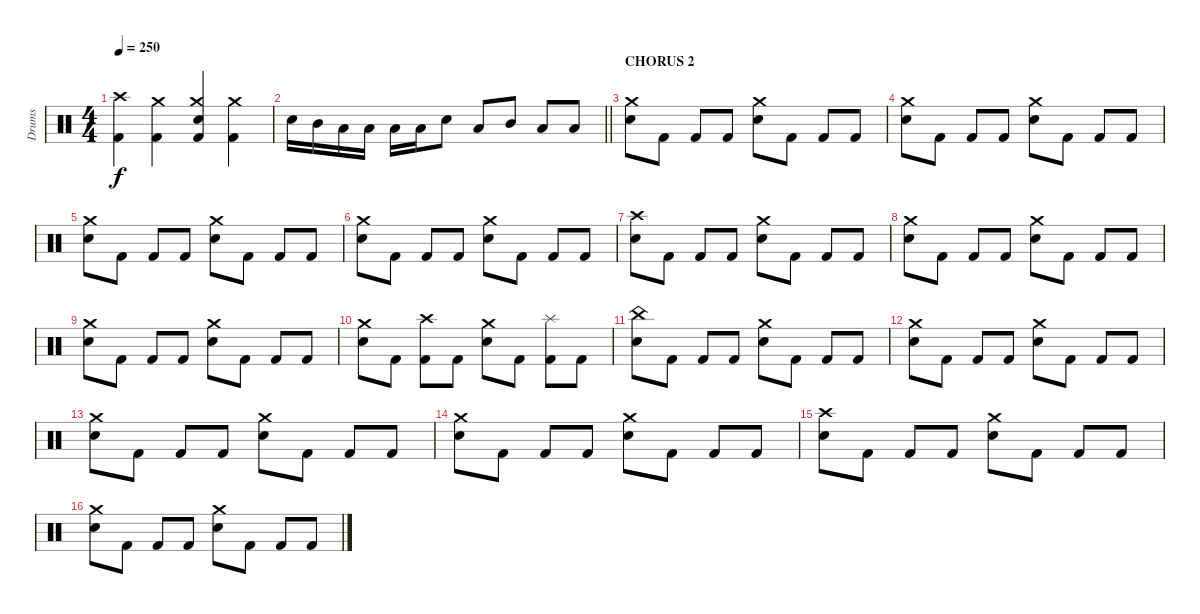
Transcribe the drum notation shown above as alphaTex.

\track ("Drums" "Drums") {instrument percussion}
\staff {score}
\articulation defaults
\ts (4 4)
\tempo 250
\clef neutral
\ks c
("Crash high (hit)" "Kick (hit) 2").4{dy f} ("Crash medium (hit)" "Kick (hit) 2").4 ("Crash medium (hit)" "Electric Snare (hit)" "Kick (hit) 2").4 ("Crash medium (hit)" "Kick (hit) 2").4 |
\barLineRight lightlight "Electric Snare (hit)".16 "Mid Tom (hit)".16 "Low Floor Tom (hit)".16 "Low Floor Tom (hit)".16 "Low Tom (hit)".16 "Low Tom (hit)".16 "Electric Snare (hit)".8 "Low Floor Tom (hit)".8 "Mid Tom (hit)".8 "Low Tom (hit)".8 "Low Floor Tom (hit)".8
|
\section ("" "CHORUS 2")
("Crash medium (hit)" "Electric Snare (hit)").8 "Kick (hit) 2".8 "Kick (hit) 2".8 "Kick (hit) 2".8 ("Crash medium (hit)" "Electric Snare (hit)").8 "Kick (hit) 2".8 "Kick (hit) 2".8 "Kick (hit) 2".8 |
("Crash medium (hit)" "Electric Snare (hit)").8 "Kick (hit) 2".8 "Kick (hit) 2".8 "Kick (hit) 2".8 ("Crash medium (hit)" "Electric Snare (hit)").8 "Kick (hit) 2".8 "Kick (hit) 2".8 "Kick (hit) 2".8 |
("Crash medium (hit)" "Electric Snare (hit)").8 "Kick (hit) 2".8 "Kick (hit) 2".8 "Kick (hit) 2".8 ("Crash medium (hit)" "Electric Snare (hit)").8 "Kick (hit) 2".8 "Kick (hit) 2".8 "Kick (hit) 2".8 |
("Crash medium (hit)" "Electric Snare (hit)").8 "Kick (hit) 2".8 "Kick (hit) 2".8 "Kick (hit) 2".8 ("Crash medium (hit)" "Electric Snare (hit)").8 "Kick (hit) 2".8 "Kick (hit) 2".8 "Kick (hit) 2".8 |
("Crash high (hit)" "Electric Snare (hit)").8 "Kick (hit) 2".8 "Kick (hit) 2".8 "Kick (hit) 2".8 ("Crash medium (hit)" "Electric Snare (hit)").8 "Kick (hit) 2".8 "Kick (hit) 2".8 "Kick (hit) 2".8 |
("Crash medium (hit)" "Electric Snare (hit)").8 "Kick (hit) 2".8 "Kick (hit) 2".8 "Kick (hit) 2".8 ("Crash medium (hit)" "Electric Snare (hit)").8 "Kick (hit) 2".8 "Kick (hit) 2".8 "Kick (hit) 2".8 |
("Crash medium (hit)" "Electric Snare (hit)").8 "Kick (hit) 2".8 "Kick (hit) 2".8 "Kick (hit) 2".8 ("Crash medium (hit)" "Electric Snare (hit)").8 "Kick (hit) 2".8 "Kick (hit) 2".8 "Kick (hit) 2".8 |
("Crash medium (hit)" "Electric Snare (hit)").8 "Kick (hit) 2".8 ("Crash high (hit)" "Kick (hit) 2").8 "Kick (hit) 2".8 ("Crash medium (hit)" "Electric Snare (hit)").8 "Kick (hit) 2".8 ("Splash (hit)" "Kick (hit) 2").8 "Kick (hit) 2".8 |
("China (hit)" "Electric Snare (hit)").8 "Kick (hit) 2".8 "Kick (hit) 2".8 "Kick (hit) 2".8 ("Crash medium (hit)" "Electric Snare (hit)").8 "Kick (hit) 2".8 "Kick (hit) 2".8 "Kick (hit) 2".8 |
("Crash medium (hit)" "Electric Snare (hit)").8 "Kick (hit) 2".8 "Kick (hit) 2".8 "Kick (hit) 2".8 ("Crash medium (hit)" "Electric Snare (hit)").8 "Kick (hit) 2".8 "Kick (hit) 2".8 "Kick (hit) 2".8 |
("Crash medium (hit)" "Electric Snare (hit)").8 "Kick (hit) 2".8 "Kick (hit) 2".8 "Kick (hit) 2".8 ("Crash medium (hit)" "Electric Snare (hit)").8 "Kick (hit) 2".8 "Kick (hit) 2".8 "Kick (hit) 2".8 |
("Crash medium (hit)" "Electric Snare (hit)").8 "Kick (hit) 2".8 "Kick (hit) 2".8 "Kick (hit) 2".8 ("Crash medium (hit)" "Electric Snare (hit)").8 "Kick (hit) 2".8 "Kick (hit) 2".8 "Kick (hit) 2".8 |
("Crash high (hit)" "Electric Snare (hit)").8 "Kick (hit) 2".8 "Kick (hit) 2".8 "Kick (hit) 2".8 ("Crash medium (hit)" "Electric Snare (hit)").8 "Kick (hit) 2".8 "Kick (hit) 2".8 "Kick (hit) 2".8 |
("Crash medium (hit)" "Electric Snare (hit)").8 "Kick (hit) 2".8 "Kick (hit) 2".8 "Kick (hit) 2".8 ("Crash medium (hit)" "Electric Snare (hit)").8 "Kick (hit) 2".8 "Kick (hit) 2".8 "Kick (hit) 2".8
